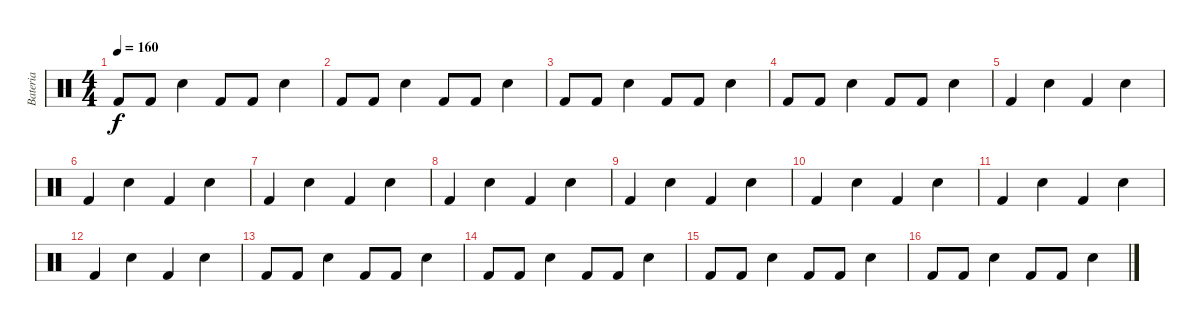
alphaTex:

\track ("Bateria" "Bateria") {instrument percussion}
\staff {score}
\articulation defaults
\ts (4 4)
\tempo 160
\clef neutral
\ks c "Kick (hit) 2".8{dy f} "Kick (hit) 2".8 "Snare (hit) 2".4 "Kick (hit) 2".8 "Kick (hit) 2".8 "Snare (hit) 2".4
|
"Kick (hit) 2".8 "Kick (hit) 2".8 "Snare (hit) 2".4 "Kick (hit) 2".8 "Kick (hit) 2".8 "Snare (hit) 2".4 |
"Kick (hit) 2".8 "Kick (hit) 2".8 "Snare (hit) 2".4 "Kick (hit) 2".8 "Kick (hit) 2".8 "Snare (hit) 2".4 |
"Kick (hit) 2".8 "Kick (hit) 2".8 "Snare (hit) 2".4 "Kick (hit) 2".8 "Kick (hit) 2".8 "Snare (hit) 2".4 |
"Kick (hit) 2".4 "Snare (hit) 2".4 "Kick (hit) 2".4 "Snare (hit) 2".4 |
"Kick (hit) 2".4 "Snare (hit) 2".4 "Kick (hit) 2".4 "Snare (hit) 2".4 |
"Kick (hit) 2".4 "Snare (hit) 2".4 "Kick (hit) 2".4 "Snare (hit) 2".4 |
"Kick (hit) 2".4 "Snare (hit) 2".4 "Kick (hit) 2".4 "Snare (hit) 2".4 |
"Kick (hit) 2".4 "Snare (hit) 2".4 "Kick (hit) 2".4 "Snare (hit) 2".4 |
"Kick (hit) 2".4 "Snare (hit) 2".4 "Kick (hit) 2".4 "Snare (hit) 2".4 |
"Kick (hit) 2".4 "Snare (hit) 2".4 "Kick (hit) 2".4 "Snare (hit) 2".4 |
"Kick (hit) 2".4 "Snare (hit) 2".4 "Kick (hit) 2".4 "Snare (hit) 2".4 |
"Kick (hit) 2".8 "Kick (hit) 2".8 "Snare (hit) 2".4 "Kick (hit) 2".8 "Kick (hit) 2".8 "Snare (hit) 2".4 |
"Kick (hit) 2".8 "Kick (hit) 2".8 "Snare (hit) 2".4 "Kick (hit) 2".8 "Kick (hit) 2".8 "Snare (hit) 2".4 |
"Kick (hit) 2".8 "Kick (hit) 2".8 "Snare (hit) 2".4 "Kick (hit) 2".8 "Kick (hit) 2".8 "Snare (hit) 2".4 |
"Kick (hit) 2".8 "Kick (hit) 2".8 "Snare (hit) 2".4 "Kick (hit) 2".8 "Kick (hit) 2".8 "Snare (hit) 2".4
